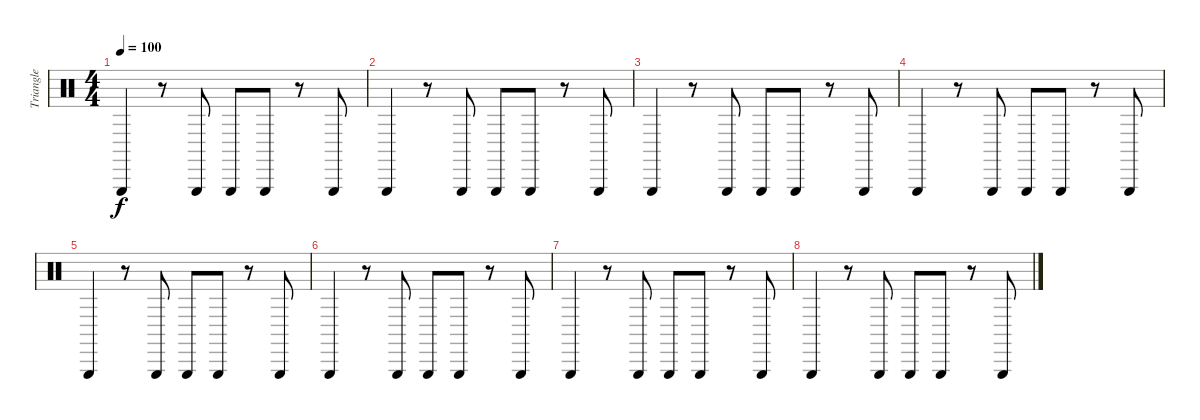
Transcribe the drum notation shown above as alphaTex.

\track ("Triangle" "Triangle") {instrument percussion}
\staff {score}
\articulation defaults
\ts (4 4)
\tempo 100
\clef neutral
\ks c "Triangle (hit)".4{dy f}
r.8 "Triangle (hit)".8 "Triangle (hit)".8 "Triangle (hit)".8 r.8 "Triangle (hit)".8 |
"Triangle (hit)".4 r.8 "Triangle (hit)".8 "Triangle (hit)".8 "Triangle (hit)".8 r.8 "Triangle (hit)".8 |
"Triangle (hit)".4 r.8 "Triangle (hit)".8 "Triangle (hit)".8 "Triangle (hit)".8 r.8 "Triangle (hit)".8 |
"Triangle (hit)".4 r.8 "Triangle (hit)".8 "Triangle (hit)".8 "Triangle (hit)".8 r.8 "Triangle (hit)".8 |
"Triangle (hit)".4 r.8 "Triangle (hit)".8 "Triangle (hit)".8 "Triangle (hit)".8 r.8 "Triangle (hit)".8 |
"Triangle (hit)".4 r.8 "Triangle (hit)".8 "Triangle (hit)".8 "Triangle (hit)".8 r.8 "Triangle (hit)".8 |
"Triangle (hit)".4 r.8 "Triangle (hit)".8 "Triangle (hit)".8 "Triangle (hit)".8 r.8 "Triangle (hit)".8 |
"Triangle (hit)".4 r.8 "Triangle (hit)".8 "Triangle (hit)".8 "Triangle (hit)".8 r.8 "Triangle (hit)".8
